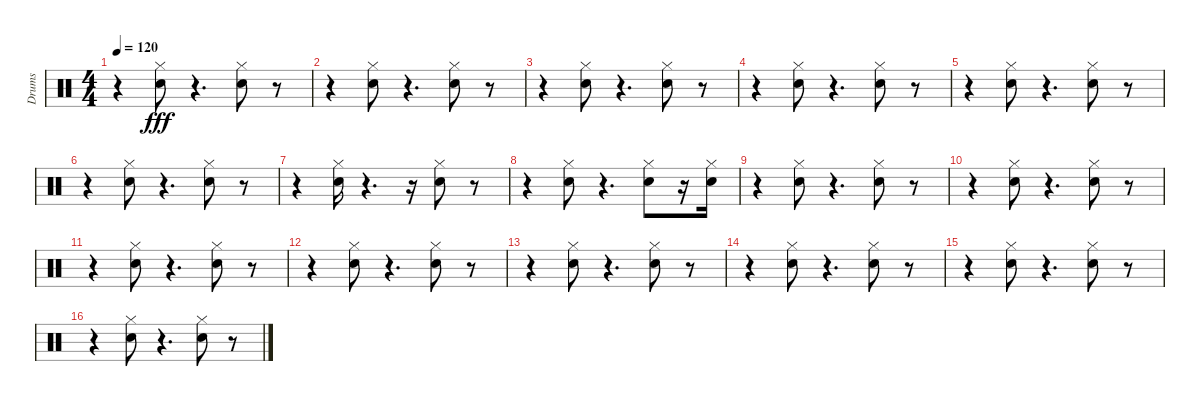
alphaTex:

\track ("Drums" "Drums") {instrument percussion}
\staff {score}
\articulation defaults
\ts (4 4)
\tempo 120
\clef neutral
\ks c
r.4{dy fff} ("Hi-Hat (closed)" "Electric Snare (hit)").8 r.4{d} ("Hi-Hat (closed)" "Electric Snare (hit)").8 r.8 |
r.4 ("Hi-Hat (closed)" "Electric Snare (hit)").8 r.4{d} ("Hi-Hat (closed)" "Electric Snare (hit)").8 r.8 |
r.4 ("Hi-Hat (closed)" "Electric Snare (hit)").8 r.4{d} ("Hi-Hat (closed)" "Electric Snare (hit)").8 r.8 |
r.4 ("Hi-Hat (closed)" "Electric Snare (hit)").8 r.4{d} ("Hi-Hat (closed)" "Electric Snare (hit)").8 r.8 |
r.4 ("Hi-Hat (closed)" "Electric Snare (hit)").8 r.4{d} ("Hi-Hat (closed)" "Electric Snare (hit)").8 r.8 |
r.4 ("Hi-Hat (closed)" "Electric Snare (hit)").8 r.4{d} ("Hi-Hat (closed)" "Electric Snare (hit)").8 r.8 |
r.4 ("Hi-Hat (closed)" "Electric Snare (hit)").16 r.4{d} r.16 ("Hi-Hat (closed)" "Electric Snare (hit)").8 r.8 |
r.4 ("Hi-Hat (closed)" "Electric Snare (hit)").8 r.4{d} ("Hi-Hat (closed)" "Electric Snare (hit)").8 r.16 ("Hi-Hat (closed)" "Electric Snare (hit)").16 |
r.4 ("Hi-Hat (closed)" "Electric Snare (hit)").8 r.4{d} ("Hi-Hat (closed)" "Electric Snare (hit)").8 r.8 |
r.4 ("Hi-Hat (closed)" "Electric Snare (hit)").8 r.4{d} ("Hi-Hat (closed)" "Electric Snare (hit)").8 r.8 |
r.4 ("Hi-Hat (closed)" "Electric Snare (hit)").8 r.4{d} ("Hi-Hat (closed)" "Electric Snare (hit)").8 r.8 |
r.4 ("Hi-Hat (closed)" "Electric Snare (hit)").8 r.4{d} ("Hi-Hat (closed)" "Electric Snare (hit)").8 r.8 |
r.4 ("Hi-Hat (closed)" "Electric Snare (hit)").8 r.4{d} ("Hi-Hat (closed)" "Electric Snare (hit)").8 r.8 |
r.4 ("Hi-Hat (closed)" "Electric Snare (hit)").8 r.4{d} ("Hi-Hat (closed)" "Electric Snare (hit)").8 r.8 |
r.4 ("Hi-Hat (closed)" "Electric Snare (hit)").8 r.4{d} ("Hi-Hat (closed)" "Electric Snare (hit)").8 r.8 |
r.4 ("Hi-Hat (closed)" "Electric Snare (hit)").8 r.4{d} ("Hi-Hat (closed)" "Electric Snare (hit)").8 r.8
